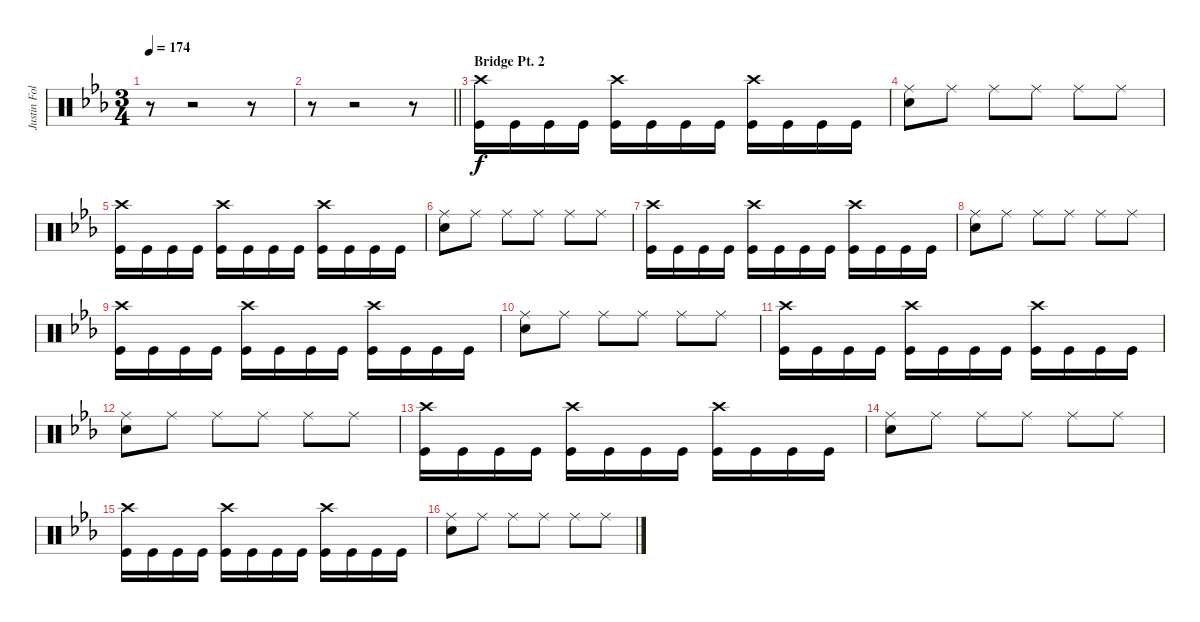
\track ("Justin Foley" "Justin Fol") {instrument percussion}
\staff {score}
\articulation defaults
\ts (3 4)
\tempo 174
\clef neutral
\ks cminor
r.8{dy f} r.2 r.8 |
\barLineRight lightlight
r.8 r.2 r.8 |
\section ("" "Bridge Pt. 2")
("Crash high (hit)" "Kick (hit)").16 "Kick (hit)".16 "Kick (hit)".16 "Kick (hit)".16 ("Crash high (hit)" "Kick (hit)").16 "Kick (hit)".16 "Kick (hit)".16 "Kick (hit)".16 ("Crash high (hit)" "Kick (hit)").16 "Kick (hit)".16 "Kick (hit)".16 "Kick (hit)".16 |
("Ride (middle)" "Snare (hit) 2").8 "Ride (middle)".8 "Ride (middle)".8 "Ride (middle)".8 "Ride (middle)".8 "Ride (middle)".8 |
("Crash high (hit)" "Kick (hit)").16 "Kick (hit)".16 "Kick (hit)".16 "Kick (hit)".16 ("Crash high (hit)" "Kick (hit)").16 "Kick (hit)".16 "Kick (hit)".16 "Kick (hit)".16 ("Crash high (hit)" "Kick (hit)").16 "Kick (hit)".16 "Kick (hit)".16 "Kick (hit)".16 |
("Ride (middle)" "Snare (hit) 2").8 "Ride (middle)".8 "Ride (middle)".8 "Ride (middle)".8 "Ride (middle)".8 "Ride (middle)".8 |
("Crash high (hit)" "Kick (hit)").16 "Kick (hit)".16 "Kick (hit)".16 "Kick (hit)".16 ("Crash high (hit)" "Kick (hit)").16 "Kick (hit)".16 "Kick (hit)".16 "Kick (hit)".16 ("Crash high (hit)" "Kick (hit)").16 "Kick (hit)".16 "Kick (hit)".16 "Kick (hit)".16 |
("Ride (middle)" "Snare (hit) 2").8 "Ride (middle)".8 "Ride (middle)".8 "Ride (middle)".8 "Ride (middle)".8 "Ride (middle)".8 |
("Crash high (hit)" "Kick (hit)").16 "Kick (hit)".16 "Kick (hit)".16 "Kick (hit)".16 ("Crash high (hit)" "Kick (hit)").16 "Kick (hit)".16 "Kick (hit)".16 "Kick (hit)".16 ("Crash high (hit)" "Kick (hit)").16 "Kick (hit)".16 "Kick (hit)".16 "Kick (hit)".16 |
("Ride (middle)" "Snare (hit) 2").8 "Ride (middle)".8 "Ride (middle)".8 "Ride (middle)".8 "Ride (middle)".8 "Ride (middle)".8 |
("Crash high (hit)" "Kick (hit)").16 "Kick (hit)".16 "Kick (hit)".16 "Kick (hit)".16 ("Crash high (hit)" "Kick (hit)").16 "Kick (hit)".16 "Kick (hit)".16 "Kick (hit)".16 ("Crash high (hit)" "Kick (hit)").16 "Kick (hit)".16 "Kick (hit)".16 "Kick (hit)".16 |
("Ride (middle)" "Snare (hit) 2").8 "Ride (middle)".8 "Ride (middle)".8 "Ride (middle)".8 "Ride (middle)".8 "Ride (middle)".8 |
("Crash high (hit)" "Kick (hit)").16 "Kick (hit)".16 "Kick (hit)".16 "Kick (hit)".16 ("Crash high (hit)" "Kick (hit)").16 "Kick (hit)".16 "Kick (hit)".16 "Kick (hit)".16 ("Crash high (hit)" "Kick (hit)").16 "Kick (hit)".16 "Kick (hit)".16 "Kick (hit)".16 |
("Ride (middle)" "Snare (hit) 2").8 "Ride (middle)".8 "Ride (middle)".8 "Ride (middle)".8 "Ride (middle)".8 "Ride (middle)".8 |
("Crash high (hit)" "Kick (hit)").16 "Kick (hit)".16 "Kick (hit)".16 "Kick (hit)".16 ("Crash high (hit)" "Kick (hit)").16 "Kick (hit)".16 "Kick (hit)".16 "Kick (hit)".16 ("Crash high (hit)" "Kick (hit)").16 "Kick (hit)".16 "Kick (hit)".16 "Kick (hit)".16 |
("Ride (middle)" "Snare (hit) 2").8 "Ride (middle)".8 "Ride (middle)".8 "Ride (middle)".8 "Ride (middle)".8 "Ride (middle)".8
